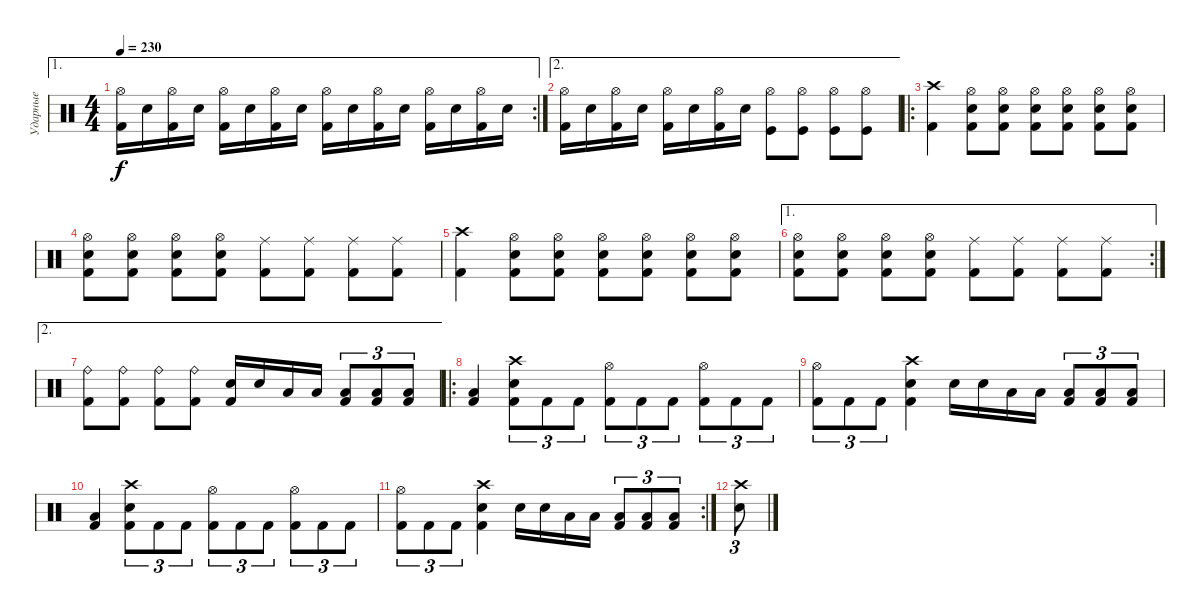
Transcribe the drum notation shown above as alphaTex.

\track ("Ударные" "Ударные") {instrument percussion}
\staff {score}
\articulation defaults
\ae 1
\rc 2
\ts (4 4)
\tempo 230
\clef neutral
\ks c
("Hi-Hat (open)" "Kick (hit) 2").16{dy f} "Snare (hit) 2".16 ("Hi-Hat (open)" "Kick (hit) 2").16 "Snare (hit) 2".16 ("Hi-Hat (open)" "Kick (hit) 2").16 "Snare (hit) 2".16 ("Hi-Hat (open)" "Kick (hit) 2").16 "Snare (hit) 2".16 ("Hi-Hat (open)" "Kick (hit) 2").16 "Snare (hit) 2".16 ("Hi-Hat (open)" "Kick (hit) 2").16 "Snare (hit) 2".16 ("Hi-Hat (open)" "Kick (hit) 2").16 "Snare (hit) 2".16 ("Hi-Hat (open)" "Kick (hit) 2").16 "Snare (hit) 2".16 |
\ae 2
("Hi-Hat (open)" "Kick (hit) 2").16 "Snare (hit) 2".16 ("Hi-Hat (open)" "Kick (hit) 2").16 "Snare (hit) 2".16 ("Hi-Hat (open)" "Kick (hit) 2").16 "Snare (hit) 2".16 ("Hi-Hat (open)" "Kick (hit) 2").16 "Snare (hit) 2".16 ("Hi-Hat (open)" "Kick (hit)").8 ("Hi-Hat (open)" "Kick (hit)").8 ("Hi-Hat (open)" "Kick (hit)").8 ("Hi-Hat (open)" "Kick (hit)").8 |
\ro
("Crash high (hit)" "Kick (hit) 2").4 ("Snare (hit) 2" "Hi-Hat (open)" "Kick (hit) 2").8 ("Snare (hit) 2" "Hi-Hat (open)" "Kick (hit) 2").8 ("Snare (hit) 2" "Hi-Hat (open)" "Kick (hit) 2").8 ("Snare (hit) 2" "Hi-Hat (open)" "Kick (hit) 2").8 ("Snare (hit) 2" "Hi-Hat (open)" "Kick (hit) 2").8 ("Snare (hit) 2" "Hi-Hat (open)" "Kick (hit) 2").8 |
("Snare (hit) 2" "Hi-Hat (open)" "Kick (hit) 2").8 ("Snare (hit) 2" "Hi-Hat (open)" "Kick (hit) 2").8 ("Snare (hit) 2" "Hi-Hat (open)" "Kick (hit) 2").8 ("Snare (hit) 2" "Hi-Hat (open)" "Kick (hit) 2").8 ("Ride (middle)" "Kick (hit) 2").8 ("Ride (middle)" "Kick (hit) 2").8 ("Ride (middle)" "Kick (hit) 2").8 ("Ride (middle)" "Kick (hit) 2").8 |
("Crash high (hit)" "Kick (hit) 2").4 ("Snare (hit) 2" "Hi-Hat (open)" "Kick (hit) 2").8 ("Snare (hit) 2" "Hi-Hat (open)" "Kick (hit) 2").8 ("Snare (hit) 2" "Hi-Hat (open)" "Kick (hit) 2").8 ("Snare (hit) 2" "Hi-Hat (open)" "Kick (hit) 2").8 ("Snare (hit) 2" "Hi-Hat (open)" "Kick (hit) 2").8 ("Snare (hit) 2" "Hi-Hat (open)" "Kick (hit) 2").8 |
\ae 1
\rc 2
("Snare (hit) 2" "Hi-Hat (open)" "Kick (hit) 2").8 ("Snare (hit) 2" "Hi-Hat (open)" "Kick (hit) 2").8 ("Snare (hit) 2" "Hi-Hat (open)" "Kick (hit) 2").8 ("Snare (hit) 2" "Hi-Hat (open)" "Kick (hit) 2").8 ("Ride (middle)" "Kick (hit) 2").8 ("Ride (middle)" "Kick (hit) 2").8 ("Ride (middle)" "Kick (hit) 2").8 ("Ride (middle)" "Kick (hit) 2").8 |
\ae 2
("Ride (bell)" "Kick (hit) 2").8 ("Ride (bell)" "Kick (hit) 2").8 ("Ride (bell)" "Kick (hit) 2").8 ("Ride (bell)" "Kick (hit) 2").8 ("Snare (hit) 2" "Kick (hit) 2").16 "Snare (hit) 2".16 "Low Tom (hit)".16 "Low Tom (hit)".16 ("Low Floor Tom (hit)" "Kick (hit) 2").8{tu (3 2)} ("Low Floor Tom (hit)" "Kick (hit) 2").8{tu (3 2)} ("Low Floor Tom (hit)" "Kick (hit) 2").8{tu (3 2)} |
\ro
("Low Floor Tom (hit)" "Kick (hit) 2").4 ("Snare (hit) 2" "Crash high (hit)" "Kick (hit) 2").8{tu (3 2)} "Kick (hit) 2".8{tu (3 2)} "Kick (hit) 2".8{tu (3 2)} ("Hi-Hat (open)" "Kick (hit) 2").8{tu (3 2)} "Kick (hit) 2".8{tu (3 2)} "Kick (hit) 2".8{tu (3 2)} ("Hi-Hat (open)" "Kick (hit) 2").8{tu (3 2)} "Kick (hit) 2".8{tu (3 2)} "Kick (hit) 2".8{tu (3 2)} |
("Hi-Hat (open)" "Kick (hit) 2").8{tu (3 2)} "Kick (hit) 2".8{tu (3 2)} "Kick (hit) 2".8{tu (3 2)} ("Snare (hit) 2" "Crash high (hit)" "Kick (hit) 2").4 "Snare (hit) 2".16 "Snare (hit) 2".16 "Low Tom (hit)".16 "Low Tom (hit)".16 ("Kick (hit) 2" "Low Floor Tom (hit)").8{tu (3 2)} ("Kick (hit) 2" "Low Floor Tom (hit)").8{tu (3 2)} ("Kick (hit) 2" "Low Floor Tom (hit)").8{tu (3 2)} |
("Low Floor Tom (hit)" "Kick (hit) 2").4 ("Snare (hit) 2" "Crash high (hit)" "Kick (hit) 2").8{tu (3 2)} "Kick (hit) 2".8{tu (3 2)} "Kick (hit) 2".8{tu (3 2)} ("Hi-Hat (open)" "Kick (hit) 2").8{tu (3 2)} "Kick (hit) 2".8{tu (3 2)} "Kick (hit) 2".8{tu (3 2)} ("Hi-Hat (open)" "Kick (hit) 2").8{tu (3 2)} "Kick (hit) 2".8{tu (3 2)} "Kick (hit) 2".8{tu (3 2)} |
\rc 2
("Hi-Hat (open)" "Kick (hit) 2").8{tu (3 2)} "Kick (hit) 2".8{tu (3 2)} "Kick (hit) 2".8{tu (3 2)} ("Snare (hit) 2" "Crash high (hit)" "Kick (hit) 2").4 "Snare (hit) 2".16 "Snare (hit) 2".16 "Low Tom (hit)".16 "Low Tom (hit)".16 ("Kick (hit) 2" "Low Floor Tom (hit)").8{tu (3 2)} ("Kick (hit) 2" "Low Floor Tom (hit)").8{tu (3 2)} ("Kick (hit) 2" "Low Floor Tom (hit)").8{tu (3 2)} |
("Snare (hit) 2" "Crash high (hit)").8{tu (3 2)}
